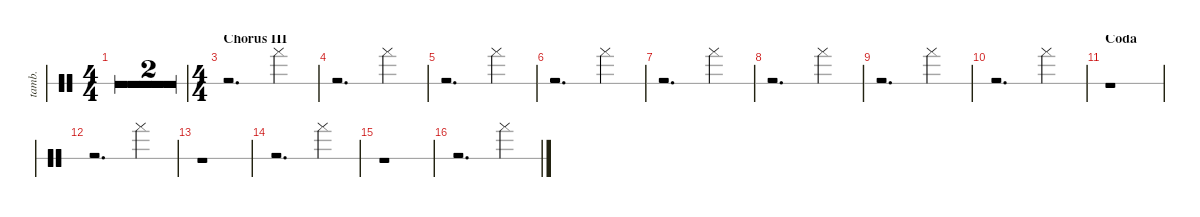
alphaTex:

\defaultSystemsLayout 4
\hideDynamics
\bracketExtendMode nobrackets
\otherSystemsTrackNameOrientation horizontal
\track ("Tambourine" "tamb.") {defaultSystemsLayout 4 multiBarRest instrument percussion}
\staff {score 1}
\articulation defaults
\ts (4 4)
\tempo 70
\clef neutral
\ks c
r.1{dy ff} |
\ts (2 4)
\beaming (8 2 2)
r.2 |
\ts (4 4)
\beaming (8 2 2 2 2)
\section ("" "Chorus III")
r.2{d} "Tambourine (hand)".4 |
r.2{d} "Tambourine (hand)".4 |
r.2{d} "Tambourine (hand)".4 |
r.2{d} "Tambourine (hand)".4 |
r.2{d} "Tambourine (hand)".4 |
r.2{d} "Tambourine (hand)".4 |
r.2{d} "Tambourine (hand)".4 |
r.2{d} "Tambourine (hand)".4 |
\section ("" "Coda")
r.1 |
r.2{d} "Tambourine (hand)".4 |
r.1 |
r.2{d} "Tambourine (hand)".4 |
r.1 |
r.2{d} "Tambourine (hand)".4
